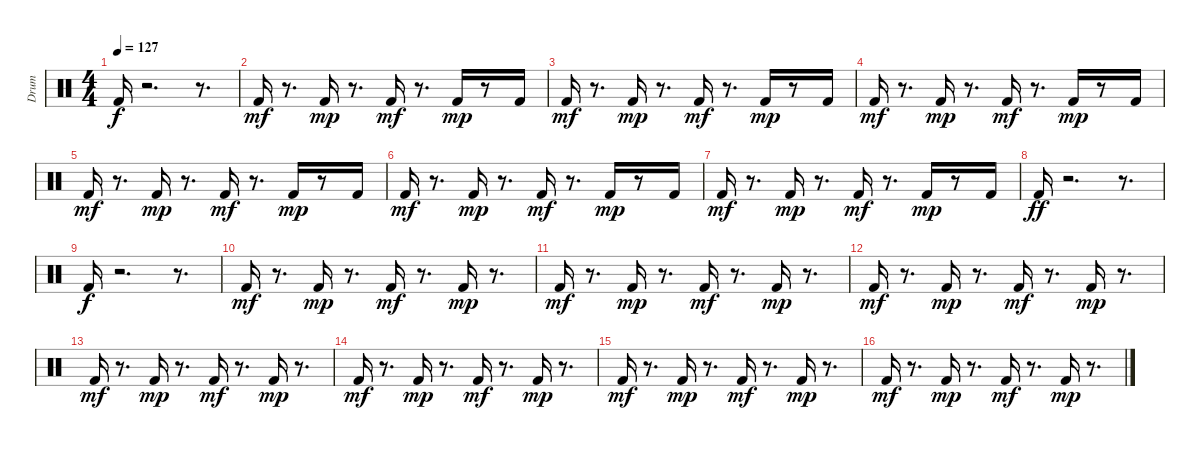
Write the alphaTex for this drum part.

\track ("Drum" "Drum") {instrument percussion}
\staff {score}
\articulation defaults
\ts (4 4)
\tempo 127
\clef neutral
\ks c "Kick (hit) 2".16{dy f}
r.2{d} r.8{d} |
"Kick (hit) 2".16{dy mf} r.8{d} "Kick (hit) 2".16{dy mp} r.8{d} "Kick (hit) 2".16{dy mf} r.8{d} "Kick (hit) 2".16{dy mp} r.8 "Kick (hit) 2".16 |
"Kick (hit) 2".16{dy mf} r.8{d} "Kick (hit) 2".16{dy mp} r.8{d} "Kick (hit) 2".16{dy mf} r.8{d} "Kick (hit) 2".16{dy mp} r.8 "Kick (hit) 2".16 |
"Kick (hit) 2".16{dy mf} r.8{d} "Kick (hit) 2".16{dy mp} r.8{d} "Kick (hit) 2".16{dy mf} r.8{d} "Kick (hit) 2".16{dy mp} r.8 "Kick (hit) 2".16 |
"Kick (hit) 2".16{dy mf} r.8{d} "Kick (hit) 2".16{dy mp} r.8{d} "Kick (hit) 2".16{dy mf} r.8{d} "Kick (hit) 2".16{dy mp} r.8 "Kick (hit) 2".16 |
"Kick (hit) 2".16{dy mf} r.8{d} "Kick (hit) 2".16{dy mp} r.8{d} "Kick (hit) 2".16{dy mf} r.8{d} "Kick (hit) 2".16{dy mp} r.8 "Kick (hit) 2".16 |
"Kick (hit) 2".16{dy mf} r.8{d} "Kick (hit) 2".16{dy mp} r.8{d} "Kick (hit) 2".16{dy mf} r.8{d} "Kick (hit) 2".16{dy mp} r.8 "Kick (hit) 2".16 |
"Kick (hit) 2".16{dy ff} r.2{d} r.8{d} |
"Kick (hit) 2".16{dy f} r.2{d} r.8{d} |
"Kick (hit) 2".16{dy mf} r.8{d} "Kick (hit) 2".16{dy mp} r.8{d} "Kick (hit) 2".16{dy mf} r.8{d} "Kick (hit) 2".16{dy mp} r.8{d} |
"Kick (hit) 2".16{dy mf} r.8{d} "Kick (hit) 2".16{dy mp} r.8{d} "Kick (hit) 2".16{dy mf} r.8{d} "Kick (hit) 2".16{dy mp} r.8{d} |
"Kick (hit) 2".16{dy mf} r.8{d} "Kick (hit) 2".16{dy mp} r.8{d} "Kick (hit) 2".16{dy mf} r.8{d} "Kick (hit) 2".16{dy mp} r.8{d} |
"Kick (hit) 2".16{dy mf} r.8{d} "Kick (hit) 2".16{dy mp} r.8{d} "Kick (hit) 2".16{dy mf} r.8{d} "Kick (hit) 2".16{dy mp} r.8{d} |
"Kick (hit) 2".16{dy mf} r.8{d} "Kick (hit) 2".16{dy mp} r.8{d} "Kick (hit) 2".16{dy mf} r.8{d} "Kick (hit) 2".16{dy mp} r.8{d} |
"Kick (hit) 2".16{dy mf} r.8{d} "Kick (hit) 2".16{dy mp} r.8{d} "Kick (hit) 2".16{dy mf} r.8{d} "Kick (hit) 2".16{dy mp} r.8{d} |
"Kick (hit) 2".16{dy mf} r.8{d} "Kick (hit) 2".16{dy mp} r.8{d} "Kick (hit) 2".16{dy mf} r.8{d} "Kick (hit) 2".16{dy mp} r.8{d}
